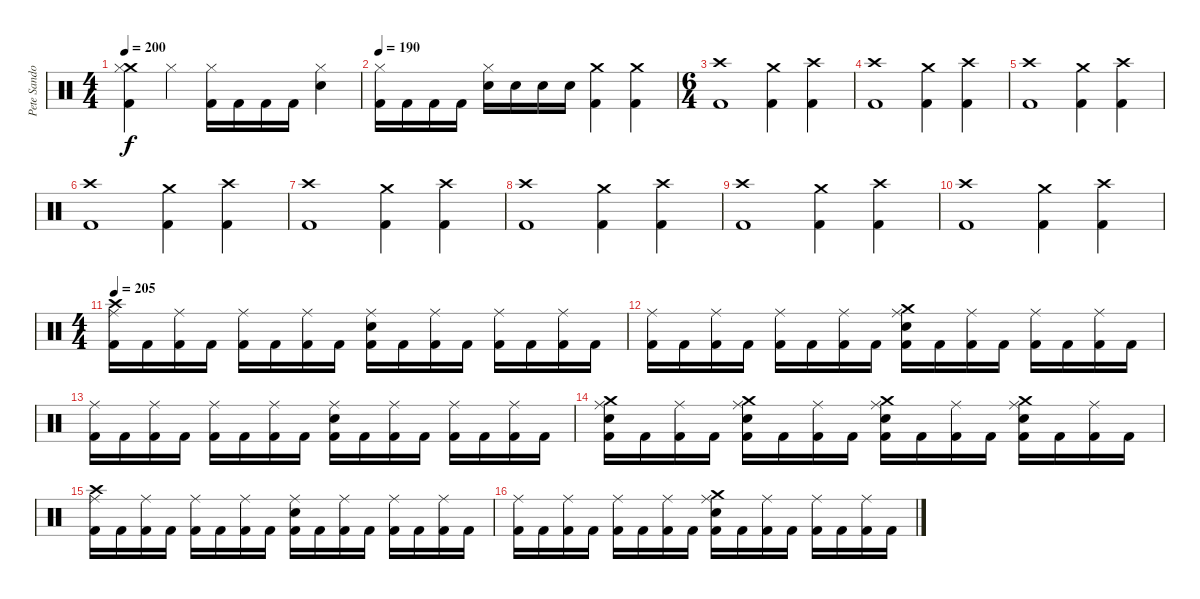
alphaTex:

\track ("Pete Sandoval" "Pete Sando") {instrument percussion}
\staff {score}
\articulation defaults
\ts (4 4)
\tempo 200
\clef neutral
\ks c
("Crash medium (hit)" "Hi-Hat (closed)" "Kick (hit) 2").4{dy f} "Hi-Hat (closed)".4 ("Hi-Hat (closed)" "Kick (hit) 2").16 "Kick (hit) 2".16 "Kick (hit) 2".16 "Kick (hit) 2".16 ("Hi-Hat (closed)" "Electric Snare (hit)").4 |
\tempo 190
("Hi-Hat (closed)" "Kick (hit) 2").16 "Kick (hit) 2".16 "Kick (hit) 2".16 "Kick (hit) 2".16 ("Hi-Hat (closed)" "Electric Snare (hit)").16 "Electric Snare (hit)".16 "Electric Snare (hit)".16 "Electric Snare (hit)".16 ("Crash medium (hit)" "Kick (hit) 2").4 ("Crash medium (hit)" "Kick (hit) 2").4 |
\ts (6 4)
("Crash high (hit)" "Kick (hit) 2").1 ("Crash medium (hit)" "Kick (hit) 2").4 ("Crash high (hit)" "Kick (hit) 2").4 |
("Crash high (hit)" "Kick (hit) 2").1 ("Crash medium (hit)" "Kick (hit) 2").4 ("Crash high (hit)" "Kick (hit) 2").4 |
("Crash high (hit)" "Kick (hit) 2").1 ("Crash medium (hit)" "Kick (hit) 2").4 ("Crash high (hit)" "Kick (hit) 2").4 |
("Crash high (hit)" "Kick (hit) 2").1 ("Crash medium (hit)" "Kick (hit) 2").4 ("Crash high (hit)" "Kick (hit) 2").4 |
("Crash high (hit)" "Kick (hit) 2").1 ("Crash medium (hit)" "Kick (hit) 2").4 ("Crash high (hit)" "Kick (hit) 2").4 |
("Crash high (hit)" "Kick (hit) 2").1 ("Crash medium (hit)" "Kick (hit) 2").4 ("Crash high (hit)" "Kick (hit) 2").4 |
("Crash high (hit)" "Kick (hit) 2").1 ("Crash medium (hit)" "Kick (hit) 2").4 ("Crash high (hit)" "Kick (hit) 2").4 |
("Crash high (hit)" "Kick (hit) 2").1 ("Crash medium (hit)" "Kick (hit) 2").4 ("Crash high (hit)" "Kick (hit) 2").4 |
\ts (4 4)
\tempo 205
("Crash high (hit)" "Ride (middle)" "Kick (hit) 2").16 "Kick (hit) 2".16 ("Ride (middle)" "Kick (hit) 2").16 "Kick (hit) 2".16 ("Ride (middle)" "Kick (hit) 2").16 "Kick (hit) 2".16 ("Ride (middle)" "Kick (hit) 2").16 "Kick (hit) 2".16 ("Electric Snare (hit)" "Ride (middle)" "Kick (hit) 2").16 "Kick (hit) 2".16 ("Ride (middle)" "Kick (hit) 2").16 "Kick (hit) 2".16 ("Ride (middle)" "Kick (hit) 2").16 "Kick (hit) 2".16 ("Ride (middle)" "Kick (hit) 2").16 "Kick (hit) 2".16 |
("Ride (middle)" "Kick (hit) 2").16 "Kick (hit) 2".16 ("Ride (middle)" "Kick (hit) 2").16 "Kick (hit) 2".16 ("Ride (middle)" "Kick (hit) 2").16 "Kick (hit) 2".16 ("Ride (middle)" "Kick (hit) 2").16 "Kick (hit) 2".16 ("Crash medium (hit)" "Electric Snare (hit)" "Ride (middle)" "Kick (hit) 2").16 "Kick (hit) 2".16 ("Ride (middle)" "Kick (hit) 2").16 "Kick (hit) 2".16 ("Ride (middle)" "Kick (hit) 2").16 "Kick (hit) 2".16 ("Ride (middle)" "Kick (hit) 2").16 "Kick (hit) 2".16 |
("Ride (middle)" "Kick (hit) 2").16 "Kick (hit) 2".16 ("Ride (middle)" "Kick (hit) 2").16 "Kick (hit) 2".16 ("Ride (middle)" "Kick (hit) 2").16 "Kick (hit) 2".16 ("Ride (middle)" "Kick (hit) 2").16 "Kick (hit) 2".16 ("Electric Snare (hit)" "Ride (middle)" "Kick (hit) 2").16 "Kick (hit) 2".16 ("Ride (middle)" "Kick (hit) 2").16 "Kick (hit) 2".16 ("Ride (middle)" "Kick (hit) 2").16 "Kick (hit) 2".16 ("Ride (middle)" "Kick (hit) 2").16 "Kick (hit) 2".16 |
("Crash medium (hit)" "Electric Snare (hit)" "Ride (middle)" "Kick (hit) 2").16 "Kick (hit) 2".16 ("Ride (middle)" "Kick (hit) 2").16 "Kick (hit) 2".16 ("Crash medium (hit)" "Electric Snare (hit)" "Ride (middle)" "Kick (hit) 2").16 "Kick (hit) 2".16 ("Ride (middle)" "Kick (hit) 2").16 "Kick (hit) 2".16 ("Crash medium (hit)" "Electric Snare (hit)" "Ride (middle)" "Kick (hit) 2").16 "Kick (hit) 2".16 ("Ride (middle)" "Kick (hit) 2").16 "Kick (hit) 2".16 ("Crash medium (hit)" "Electric Snare (hit)" "Ride (middle)" "Kick (hit) 2").16 "Kick (hit) 2".16 ("Ride (middle)" "Kick (hit) 2").16 "Kick (hit) 2".16 |
("Crash high (hit)" "Ride (middle)" "Kick (hit) 2").16 "Kick (hit) 2".16 ("Ride (middle)" "Kick (hit) 2").16 "Kick (hit) 2".16 ("Ride (middle)" "Kick (hit) 2").16 "Kick (hit) 2".16 ("Ride (middle)" "Kick (hit) 2").16 "Kick (hit) 2".16 ("Electric Snare (hit)" "Ride (middle)" "Kick (hit) 2").16 "Kick (hit) 2".16 ("Ride (middle)" "Kick (hit) 2").16 "Kick (hit) 2".16 ("Ride (middle)" "Kick (hit) 2").16 "Kick (hit) 2".16 ("Ride (middle)" "Kick (hit) 2").16 "Kick (hit) 2".16 |
("Ride (middle)" "Kick (hit) 2").16 "Kick (hit) 2".16 ("Ride (middle)" "Kick (hit) 2").16 "Kick (hit) 2".16 ("Ride (middle)" "Kick (hit) 2").16 "Kick (hit) 2".16 ("Ride (middle)" "Kick (hit) 2").16 "Kick (hit) 2".16 ("Crash medium (hit)" "Electric Snare (hit)" "Ride (middle)" "Kick (hit) 2").16 "Kick (hit) 2".16 ("Ride (middle)" "Kick (hit) 2").16 "Kick (hit) 2".16 ("Ride (middle)" "Kick (hit) 2").16 "Kick (hit) 2".16 ("Ride (middle)" "Kick (hit) 2").16 "Kick (hit) 2".16
